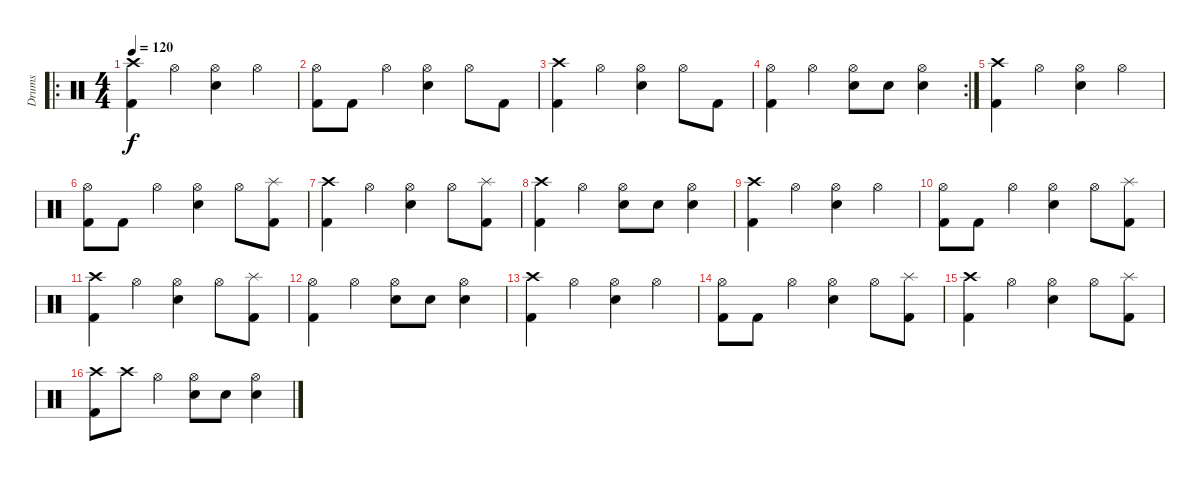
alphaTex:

\track ("Drums" "Drums") {instrument percussion}
\staff {score}
\articulation defaults
\ro
\ts (4 4)
\tempo 120
\clef neutral
\ks c
("Crash high (hit)" "Kick (hit) 2").4{dy f} "Hi-Hat (open)".4 ("Hi-Hat (open)" "Snare (hit) 2").4 "Hi-Hat (open)".4 |
("Hi-Hat (open)" "Kick (hit) 2").8 "Kick (hit) 2".8 "Hi-Hat (open)".4 ("Hi-Hat (open)" "Snare (hit) 2").4 "Hi-Hat (open)".8 "Kick (hit) 2".8 |
("Crash high (hit)" "Kick (hit) 2").4 "Hi-Hat (open)".4 ("Hi-Hat (open)" "Snare (hit) 2").4 "Hi-Hat (open)".8 "Kick (hit) 2".8 |
\rc 2
("Hi-Hat (open)" "Kick (hit) 2").4 "Hi-Hat (open)".4 ("Hi-Hat (open)" "Snare (hit) 2").8 "Snare (hit) 2".8 ("Hi-Hat (open)" "Snare (hit) 2").4 |
("Crash high (hit)" "Kick (hit) 2").4 "Hi-Hat (open)".4 ("Hi-Hat (open)" "Snare (hit) 2").4 "Hi-Hat (open)".4 |
("Hi-Hat (open)" "Kick (hit) 2").8 "Kick (hit) 2".8 "Hi-Hat (open)".4 ("Hi-Hat (open)" "Snare (hit) 2").4 "Hi-Hat (open)".8 ("Splash (hit)" "Kick (hit) 2").8 |
("Crash high (hit)" "Kick (hit) 2").4 "Hi-Hat (open)".4 ("Hi-Hat (open)" "Snare (hit) 2").4 "Hi-Hat (open)".8 ("Splash (hit)" "Kick (hit) 2").8 |
("Crash high (hit)" "Kick (hit) 2").4 "Hi-Hat (open)".4 ("Hi-Hat (open)" "Snare (hit) 2").8 "Snare (hit) 2".8 ("Hi-Hat (open)" "Snare (hit) 2").4 |
("Crash high (hit)" "Kick (hit) 2").4 "Hi-Hat (open)".4 ("Hi-Hat (open)" "Snare (hit) 2").4 "Hi-Hat (open)".4 |
("Hi-Hat (open)" "Kick (hit) 2").8 "Kick (hit) 2".8 "Hi-Hat (open)".4 ("Hi-Hat (open)" "Snare (hit) 2").4 "Hi-Hat (open)".8 ("Splash (hit)" "Kick (hit) 2").8 |
("Crash high (hit)" "Kick (hit) 2").4 "Hi-Hat (open)".4 ("Hi-Hat (open)" "Snare (hit) 2").4 "Hi-Hat (open)".8 ("Splash (hit)" "Kick (hit) 2").8 |
("Hi-Hat (open)" "Kick (hit) 2").4 "Hi-Hat (open)".4 ("Hi-Hat (open)" "Snare (hit) 2").8 "Snare (hit) 2".8 ("Hi-Hat (open)" "Snare (hit) 2").4 |
("Crash high (hit)" "Kick (hit) 2").4 "Hi-Hat (open)".4 ("Hi-Hat (open)" "Snare (hit) 2").4 "Hi-Hat (open)".4 |
("Hi-Hat (open)" "Kick (hit) 2").8 "Kick (hit) 2".8 "Hi-Hat (open)".4 ("Hi-Hat (open)" "Snare (hit) 2").4 "Hi-Hat (open)".8 ("Splash (hit)" "Kick (hit) 2").8 |
("Crash high (hit)" "Kick (hit) 2").4 "Hi-Hat (open)".4 ("Hi-Hat (open)" "Snare (hit) 2").4 "Hi-Hat (open)".8 ("Splash (hit)" "Kick (hit) 2").8 |
("Crash high (hit)" "Kick (hit) 2").8 "Crash high (hit)".8 "Hi-Hat (open)".4 ("Hi-Hat (open)" "Snare (hit) 2").8 "Snare (hit) 2".8 ("Hi-Hat (open)" "Snare (hit) 2").4
